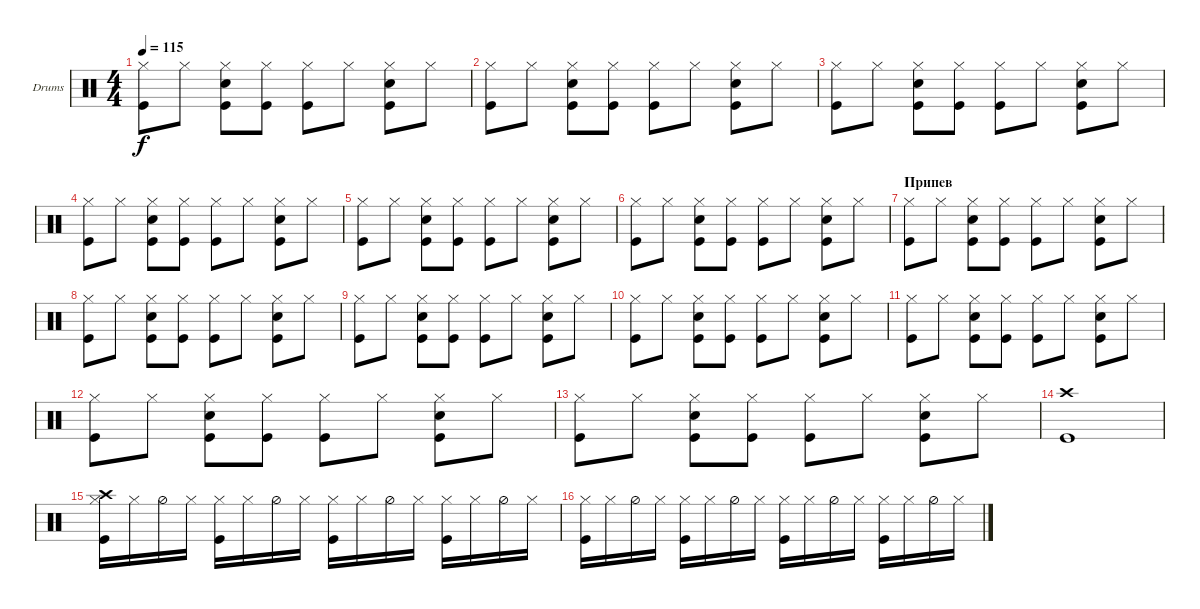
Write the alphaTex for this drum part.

\defaultSystemsLayout 4
\bracketExtendMode groupsimilarinstruments
\firstSystemTrackNameOrientation horizontal
\otherSystemsTrackNameOrientation horizontal
\track ("Drumkit" "Drums") {instrument percussion}
\staff {score}
\articulation defaults
\ts (4 4)
\tempo 115
\clef neutral
\ks c
("Hi-Hat (closed)" "Kick (hit)").8{dy f} "Hi-Hat (closed)".8 ("Hi-Hat (closed)" "Snare (hit) 2" "Kick (hit)").8 ("Hi-Hat (closed)" "Kick (hit)").8 ("Hi-Hat (closed)" "Kick (hit)").8 "Hi-Hat (closed)".8 ("Hi-Hat (closed)" "Kick (hit)" "Snare (hit) 2").8 "Hi-Hat (closed)".8 |
("Hi-Hat (closed)" "Kick (hit)").8 "Hi-Hat (closed)".8 ("Hi-Hat (closed)" "Snare (hit) 2" "Kick (hit)").8 ("Hi-Hat (closed)" "Kick (hit)").8 ("Hi-Hat (closed)" "Kick (hit)").8 "Hi-Hat (closed)".8 ("Hi-Hat (closed)" "Kick (hit)" "Snare (hit) 2").8 "Hi-Hat (closed)".8 |
("Hi-Hat (closed)" "Kick (hit)").8 "Hi-Hat (closed)".8 ("Hi-Hat (closed)" "Snare (hit) 2" "Kick (hit)").8 ("Hi-Hat (closed)" "Kick (hit)").8 ("Hi-Hat (closed)" "Kick (hit)").8 "Hi-Hat (closed)".8 ("Hi-Hat (closed)" "Kick (hit)" "Snare (hit) 2").8 "Hi-Hat (closed)".8 |
("Hi-Hat (closed)" "Kick (hit)").8 "Hi-Hat (closed)".8 ("Hi-Hat (closed)" "Snare (hit) 2" "Kick (hit)").8 ("Hi-Hat (closed)" "Kick (hit)").8 ("Hi-Hat (closed)" "Kick (hit)").8 "Hi-Hat (closed)".8 ("Hi-Hat (closed)" "Kick (hit)" "Snare (hit) 2").8 "Hi-Hat (closed)".8 |
("Hi-Hat (closed)" "Kick (hit)").8 "Hi-Hat (closed)".8 ("Hi-Hat (closed)" "Snare (hit) 2" "Kick (hit)").8 ("Hi-Hat (closed)" "Kick (hit)").8 ("Hi-Hat (closed)" "Kick (hit)").8 "Hi-Hat (closed)".8 ("Hi-Hat (closed)" "Kick (hit)" "Snare (hit) 2").8 "Hi-Hat (closed)".8 |
("Hi-Hat (closed)" "Kick (hit)").8 "Hi-Hat (closed)".8 ("Hi-Hat (closed)" "Snare (hit) 2" "Kick (hit)").8 ("Hi-Hat (closed)" "Kick (hit)").8 ("Hi-Hat (closed)" "Kick (hit)").8 "Hi-Hat (closed)".8 ("Hi-Hat (closed)" "Kick (hit)" "Snare (hit) 2").8 "Hi-Hat (closed)".8 |
\section ("" "Припев")
("Hi-Hat (closed)" "Kick (hit)").8 "Hi-Hat (closed)".8 ("Hi-Hat (closed)" "Snare (hit) 2" "Kick (hit)").8 ("Hi-Hat (closed)" "Kick (hit)").8 ("Hi-Hat (closed)" "Kick (hit)").8 "Hi-Hat (closed)".8 ("Hi-Hat (closed)" "Kick (hit)" "Snare (hit) 2").8 "Hi-Hat (closed)".8 |
("Hi-Hat (closed)" "Kick (hit)").8 "Hi-Hat (closed)".8 ("Hi-Hat (closed)" "Snare (hit) 2" "Kick (hit)").8 ("Hi-Hat (closed)" "Kick (hit)").8 ("Hi-Hat (closed)" "Kick (hit)").8 "Hi-Hat (closed)".8 ("Hi-Hat (closed)" "Kick (hit)" "Snare (hit) 2").8 "Hi-Hat (closed)".8 |
("Hi-Hat (closed)" "Kick (hit)").8 "Hi-Hat (closed)".8 ("Hi-Hat (closed)" "Snare (hit) 2" "Kick (hit)").8 ("Hi-Hat (closed)" "Kick (hit)").8 ("Hi-Hat (closed)" "Kick (hit)").8 "Hi-Hat (closed)".8 ("Hi-Hat (closed)" "Kick (hit)" "Snare (hit) 2").8 "Hi-Hat (closed)".8 |
("Hi-Hat (closed)" "Kick (hit)").8 "Hi-Hat (closed)".8 ("Hi-Hat (closed)" "Snare (hit) 2" "Kick (hit)").8 ("Hi-Hat (closed)" "Kick (hit)").8 ("Hi-Hat (closed)" "Kick (hit)").8 "Hi-Hat (closed)".8 ("Hi-Hat (closed)" "Kick (hit)" "Snare (hit) 2").8 "Hi-Hat (closed)".8 |
("Hi-Hat (closed)" "Kick (hit)").8 "Hi-Hat (closed)".8 ("Hi-Hat (closed)" "Snare (hit) 2" "Kick (hit)").8 ("Hi-Hat (closed)" "Kick (hit)").8 ("Hi-Hat (closed)" "Kick (hit)").8 "Hi-Hat (closed)".8 ("Hi-Hat (closed)" "Kick (hit)" "Snare (hit) 2").8 "Hi-Hat (closed)".8 |
("Hi-Hat (closed)" "Kick (hit)").8 "Hi-Hat (closed)".8 ("Hi-Hat (closed)" "Snare (hit) 2" "Kick (hit)").8 ("Hi-Hat (closed)" "Kick (hit)").8 ("Hi-Hat (closed)" "Kick (hit)").8 "Hi-Hat (closed)".8 ("Hi-Hat (closed)" "Kick (hit)" "Snare (hit) 2").8 "Hi-Hat (closed)".8 |
("Hi-Hat (closed)" "Kick (hit)").8 "Hi-Hat (closed)".8 ("Hi-Hat (closed)" "Snare (hit) 2" "Kick (hit)").8 ("Hi-Hat (closed)" "Kick (hit)").8 ("Hi-Hat (closed)" "Kick (hit)").8 "Hi-Hat (closed)".8 ("Hi-Hat (closed)" "Kick (hit)" "Snare (hit) 2").8 "Hi-Hat (closed)".8 |
("Crash high (hit)" "Kick (hit)").1 |
("Hi-Hat (closed)" "Kick (hit)" "Crash high (hit)").16 "Hi-Hat (closed)".16 "Hi-Hat (half)".16 "Hi-Hat (closed)".16 ("Hi-Hat (closed)" "Kick (hit)").16 "Hi-Hat (closed)".16 "Hi-Hat (half)".16 "Hi-Hat (closed)".16 ("Hi-Hat (closed)" "Kick (hit)").16 "Hi-Hat (closed)".16 "Hi-Hat (half)".16 "Hi-Hat (closed)".16 ("Hi-Hat (closed)" "Kick (hit)").16 "Hi-Hat (closed)".16 "Hi-Hat (half)".16 "Hi-Hat (closed)".16 |
("Hi-Hat (closed)" "Kick (hit)").16 "Hi-Hat (closed)".16 "Hi-Hat (half)".16 "Hi-Hat (closed)".16 ("Hi-Hat (closed)" "Kick (hit)").16 "Hi-Hat (closed)".16 "Hi-Hat (half)".16 "Hi-Hat (closed)".16 ("Hi-Hat (closed)" "Kick (hit)").16 "Hi-Hat (closed)".16 "Hi-Hat (half)".16 "Hi-Hat (closed)".16 ("Hi-Hat (closed)" "Kick (hit)").16 "Hi-Hat (closed)".16 "Hi-Hat (half)".16 "Hi-Hat (closed)".16
